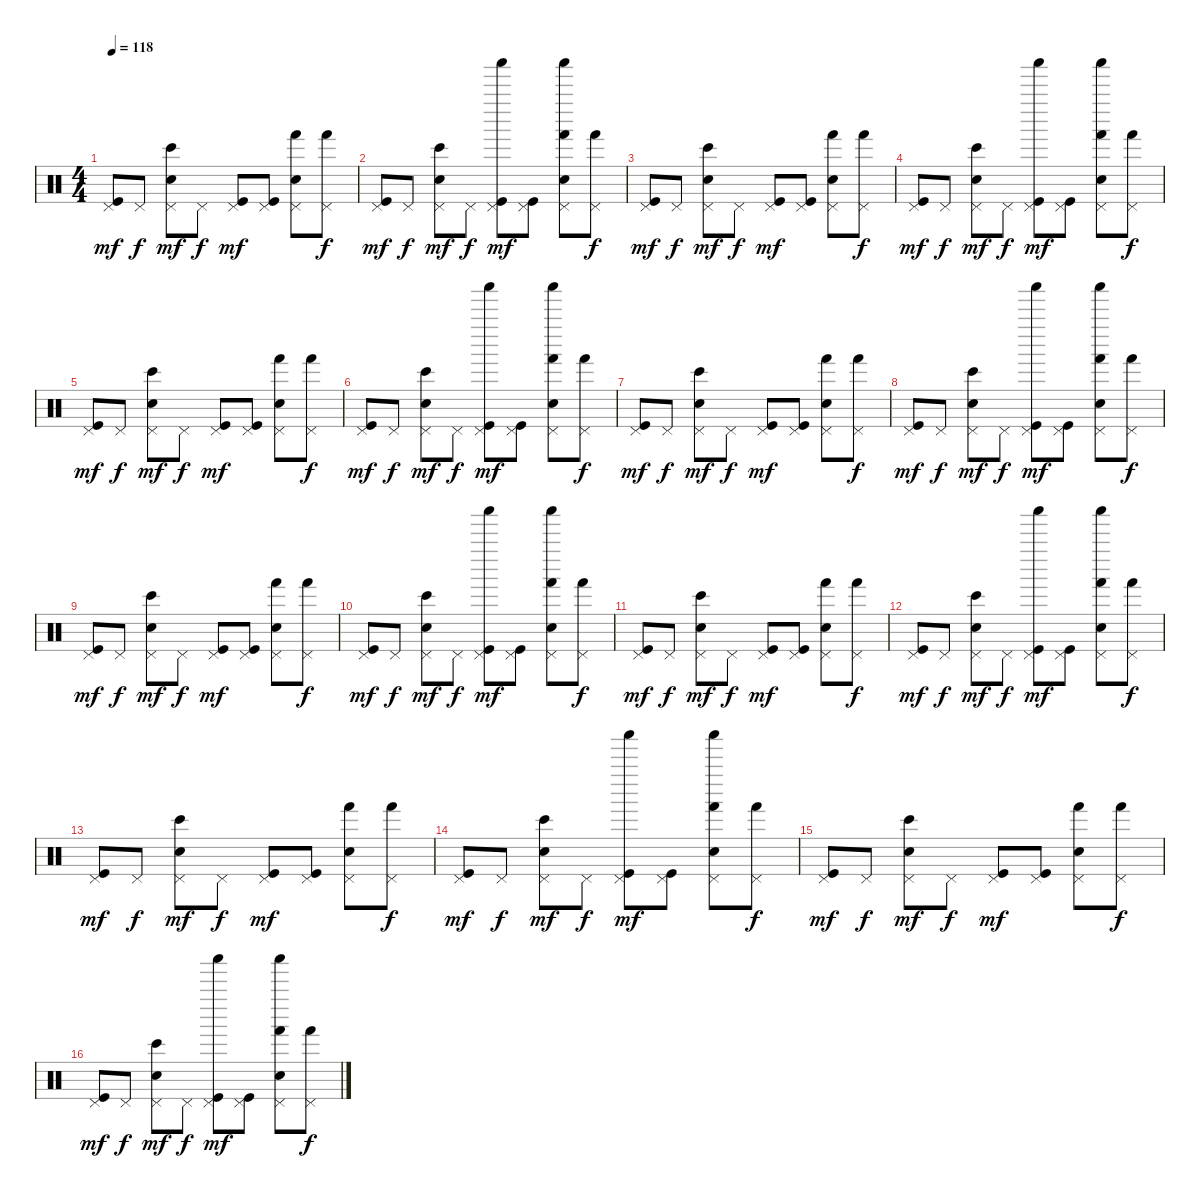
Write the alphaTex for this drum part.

\track "" {instrument percussion}
\staff {score}
\articulation defaults
\ts (4 4)
\tempo 118
\clef neutral
\ks c
("Pedal Hi-Hat (hit)" "Kick (hit)").8{dy mf} "Pedal Hi-Hat (hit)".8{dy f} ("Pedal Hi-Hat (hit)" "Snare (hit) 2" "Bongo High (hit)").8{dy mf} "Pedal Hi-Hat (hit)".8{dy f} ("Pedal Hi-Hat (hit)" "Kick (hit)").8{dy mf} ("Pedal Hi-Hat (hit)" "Kick (hit)").8 ("Pedal Hi-Hat (hit)" "Snare (hit) 2" "Hand (hit)").8 ("Pedal Hi-Hat (hit)" "Hand (hit)").8{dy f} |
("Pedal Hi-Hat (hit)" "Kick (hit)").8{dy mf} "Pedal Hi-Hat (hit)".8{dy f} ("Pedal Hi-Hat (hit)" "Snare (hit) 2" "Bongo High (hit)").8{dy mf} "Pedal Hi-Hat (hit)".8{dy f} ("Pedal Hi-Hat (hit)" "Kick (hit)" "Shaker (hit)").8{dy mf} ("Pedal Hi-Hat (hit)" "Kick (hit)").8 ("Pedal Hi-Hat (hit)" "Snare (hit) 2" "Hand (hit)" "Shaker (hit)").8 ("Pedal Hi-Hat (hit)" "Hand (hit)").8{dy f} |
("Pedal Hi-Hat (hit)" "Kick (hit)").8{dy mf} "Pedal Hi-Hat (hit)".8{dy f} ("Pedal Hi-Hat (hit)" "Snare (hit) 2" "Bongo High (hit)").8{dy mf} "Pedal Hi-Hat (hit)".8{dy f} ("Pedal Hi-Hat (hit)" "Kick (hit)").8{dy mf} ("Pedal Hi-Hat (hit)" "Kick (hit)").8 ("Pedal Hi-Hat (hit)" "Snare (hit) 2" "Hand (hit)").8 ("Pedal Hi-Hat (hit)" "Hand (hit)").8{dy f} |
("Pedal Hi-Hat (hit)" "Kick (hit)").8{dy mf} "Pedal Hi-Hat (hit)".8{dy f} ("Pedal Hi-Hat (hit)" "Snare (hit) 2" "Bongo High (hit)").8{dy mf} "Pedal Hi-Hat (hit)".8{dy f} ("Pedal Hi-Hat (hit)" "Kick (hit)" "Shaker (hit)").8{dy mf} ("Pedal Hi-Hat (hit)" "Kick (hit)").8 ("Pedal Hi-Hat (hit)" "Snare (hit) 2" "Hand (hit)" "Shaker (hit)").8 ("Pedal Hi-Hat (hit)" "Hand (hit)").8{dy f} |
("Pedal Hi-Hat (hit)" "Kick (hit)").8{dy mf} "Pedal Hi-Hat (hit)".8{dy f} ("Pedal Hi-Hat (hit)" "Snare (hit) 2" "Bongo High (hit)").8{dy mf} "Pedal Hi-Hat (hit)".8{dy f} ("Pedal Hi-Hat (hit)" "Kick (hit)").8{dy mf} ("Pedal Hi-Hat (hit)" "Kick (hit)").8 ("Pedal Hi-Hat (hit)" "Snare (hit) 2" "Hand (hit)").8 ("Pedal Hi-Hat (hit)" "Hand (hit)").8{dy f} |
("Pedal Hi-Hat (hit)" "Kick (hit)").8{dy mf} "Pedal Hi-Hat (hit)".8{dy f} ("Pedal Hi-Hat (hit)" "Snare (hit) 2" "Bongo High (hit)").8{dy mf} "Pedal Hi-Hat (hit)".8{dy f} ("Pedal Hi-Hat (hit)" "Kick (hit)" "Shaker (hit)").8{dy mf} ("Pedal Hi-Hat (hit)" "Kick (hit)").8 ("Pedal Hi-Hat (hit)" "Snare (hit) 2" "Hand (hit)" "Shaker (hit)").8 ("Pedal Hi-Hat (hit)" "Hand (hit)").8{dy f} |
("Pedal Hi-Hat (hit)" "Kick (hit)").8{dy mf} "Pedal Hi-Hat (hit)".8{dy f} ("Pedal Hi-Hat (hit)" "Snare (hit) 2" "Bongo High (hit)").8{dy mf} "Pedal Hi-Hat (hit)".8{dy f} ("Pedal Hi-Hat (hit)" "Kick (hit)").8{dy mf} ("Pedal Hi-Hat (hit)" "Kick (hit)").8 ("Pedal Hi-Hat (hit)" "Snare (hit) 2" "Hand (hit)").8 ("Pedal Hi-Hat (hit)" "Hand (hit)").8{dy f} |
("Pedal Hi-Hat (hit)" "Kick (hit)").8{dy mf} "Pedal Hi-Hat (hit)".8{dy f} ("Pedal Hi-Hat (hit)" "Snare (hit) 2" "Bongo High (hit)").8{dy mf} "Pedal Hi-Hat (hit)".8{dy f} ("Pedal Hi-Hat (hit)" "Kick (hit)" "Shaker (hit)").8{dy mf} ("Pedal Hi-Hat (hit)" "Kick (hit)").8 ("Pedal Hi-Hat (hit)" "Snare (hit) 2" "Hand (hit)" "Shaker (hit)").8 ("Pedal Hi-Hat (hit)" "Hand (hit)").8{dy f} |
("Pedal Hi-Hat (hit)" "Kick (hit)").8{dy mf} "Pedal Hi-Hat (hit)".8{dy f} ("Pedal Hi-Hat (hit)" "Snare (hit) 2" "Bongo High (hit)").8{dy mf} "Pedal Hi-Hat (hit)".8{dy f} ("Pedal Hi-Hat (hit)" "Kick (hit)").8{dy mf} ("Pedal Hi-Hat (hit)" "Kick (hit)").8 ("Pedal Hi-Hat (hit)" "Snare (hit) 2" "Hand (hit)").8 ("Pedal Hi-Hat (hit)" "Hand (hit)").8{dy f} |
("Pedal Hi-Hat (hit)" "Kick (hit)").8{dy mf volume 11} "Pedal Hi-Hat (hit)".8{dy f} ("Pedal Hi-Hat (hit)" "Snare (hit) 2" "Bongo High (hit)").8{dy mf} "Pedal Hi-Hat (hit)".8{dy f} ("Pedal Hi-Hat (hit)" "Kick (hit)" "Shaker (hit)").8{dy mf} ("Pedal Hi-Hat (hit)" "Kick (hit)").8 ("Pedal Hi-Hat (hit)" "Snare (hit) 2" "Hand (hit)" "Shaker (hit)").8 ("Pedal Hi-Hat (hit)" "Hand (hit)").8{dy f} |
("Pedal Hi-Hat (hit)" "Kick (hit)").8{dy mf} "Pedal Hi-Hat (hit)".8{dy f} ("Pedal Hi-Hat (hit)" "Snare (hit) 2" "Bongo High (hit)").8{dy mf} "Pedal Hi-Hat (hit)".8{dy f} ("Pedal Hi-Hat (hit)" "Kick (hit)").8{dy mf} ("Pedal Hi-Hat (hit)" "Kick (hit)").8 ("Pedal Hi-Hat (hit)" "Snare (hit) 2" "Hand (hit)").8 ("Pedal Hi-Hat (hit)" "Hand (hit)").8{dy f} |
("Pedal Hi-Hat (hit)" "Kick (hit)").8{dy mf volume 10} "Pedal Hi-Hat (hit)".8{dy f} ("Pedal Hi-Hat (hit)" "Snare (hit) 2" "Bongo High (hit)").8{dy mf} "Pedal Hi-Hat (hit)".8{dy f} ("Pedal Hi-Hat (hit)" "Kick (hit)" "Shaker (hit)").8{dy mf} ("Pedal Hi-Hat (hit)" "Kick (hit)").8 ("Pedal Hi-Hat (hit)" "Snare (hit) 2" "Hand (hit)" "Shaker (hit)").8 ("Pedal Hi-Hat (hit)" "Hand (hit)").8{dy f} |
("Pedal Hi-Hat (hit)" "Kick (hit)").8{dy mf} "Pedal Hi-Hat (hit)".8{dy f} ("Pedal Hi-Hat (hit)" "Snare (hit) 2" "Bongo High (hit)").8{dy mf} "Pedal Hi-Hat (hit)".8{dy f} ("Pedal Hi-Hat (hit)" "Kick (hit)").8{dy mf} ("Pedal Hi-Hat (hit)" "Kick (hit)").8 ("Pedal Hi-Hat (hit)" "Snare (hit) 2" "Hand (hit)").8 ("Pedal Hi-Hat (hit)" "Hand (hit)").8{dy f} |
("Pedal Hi-Hat (hit)" "Kick (hit)").8{dy mf volume 8} "Pedal Hi-Hat (hit)".8{dy f} ("Pedal Hi-Hat (hit)" "Snare (hit) 2" "Bongo High (hit)").8{dy mf} "Pedal Hi-Hat (hit)".8{dy f} ("Pedal Hi-Hat (hit)" "Kick (hit)" "Shaker (hit)").8{dy mf} ("Pedal Hi-Hat (hit)" "Kick (hit)").8 ("Pedal Hi-Hat (hit)" "Snare (hit) 2" "Hand (hit)" "Shaker (hit)").8 ("Pedal Hi-Hat (hit)" "Hand (hit)").8{dy f} |
("Pedal Hi-Hat (hit)" "Kick (hit)").8{dy mf} "Pedal Hi-Hat (hit)".8{dy f} ("Pedal Hi-Hat (hit)" "Snare (hit) 2" "Bongo High (hit)").8{dy mf} "Pedal Hi-Hat (hit)".8{dy f} ("Pedal Hi-Hat (hit)" "Kick (hit)").8{dy mf} ("Pedal Hi-Hat (hit)" "Kick (hit)").8 ("Pedal Hi-Hat (hit)" "Snare (hit) 2" "Hand (hit)").8 ("Pedal Hi-Hat (hit)" "Hand (hit)").8{dy f} |
("Pedal Hi-Hat (hit)" "Kick (hit)").8{dy mf volume 6} "Pedal Hi-Hat (hit)".8{dy f} ("Pedal Hi-Hat (hit)" "Snare (hit) 2" "Bongo High (hit)").8{dy mf} "Pedal Hi-Hat (hit)".8{dy f} ("Pedal Hi-Hat (hit)" "Kick (hit)" "Shaker (hit)").8{dy mf} ("Pedal Hi-Hat (hit)" "Kick (hit)").8 ("Pedal Hi-Hat (hit)" "Snare (hit) 2" "Hand (hit)" "Shaker (hit)").8 ("Pedal Hi-Hat (hit)" "Hand (hit)").8{dy f}
